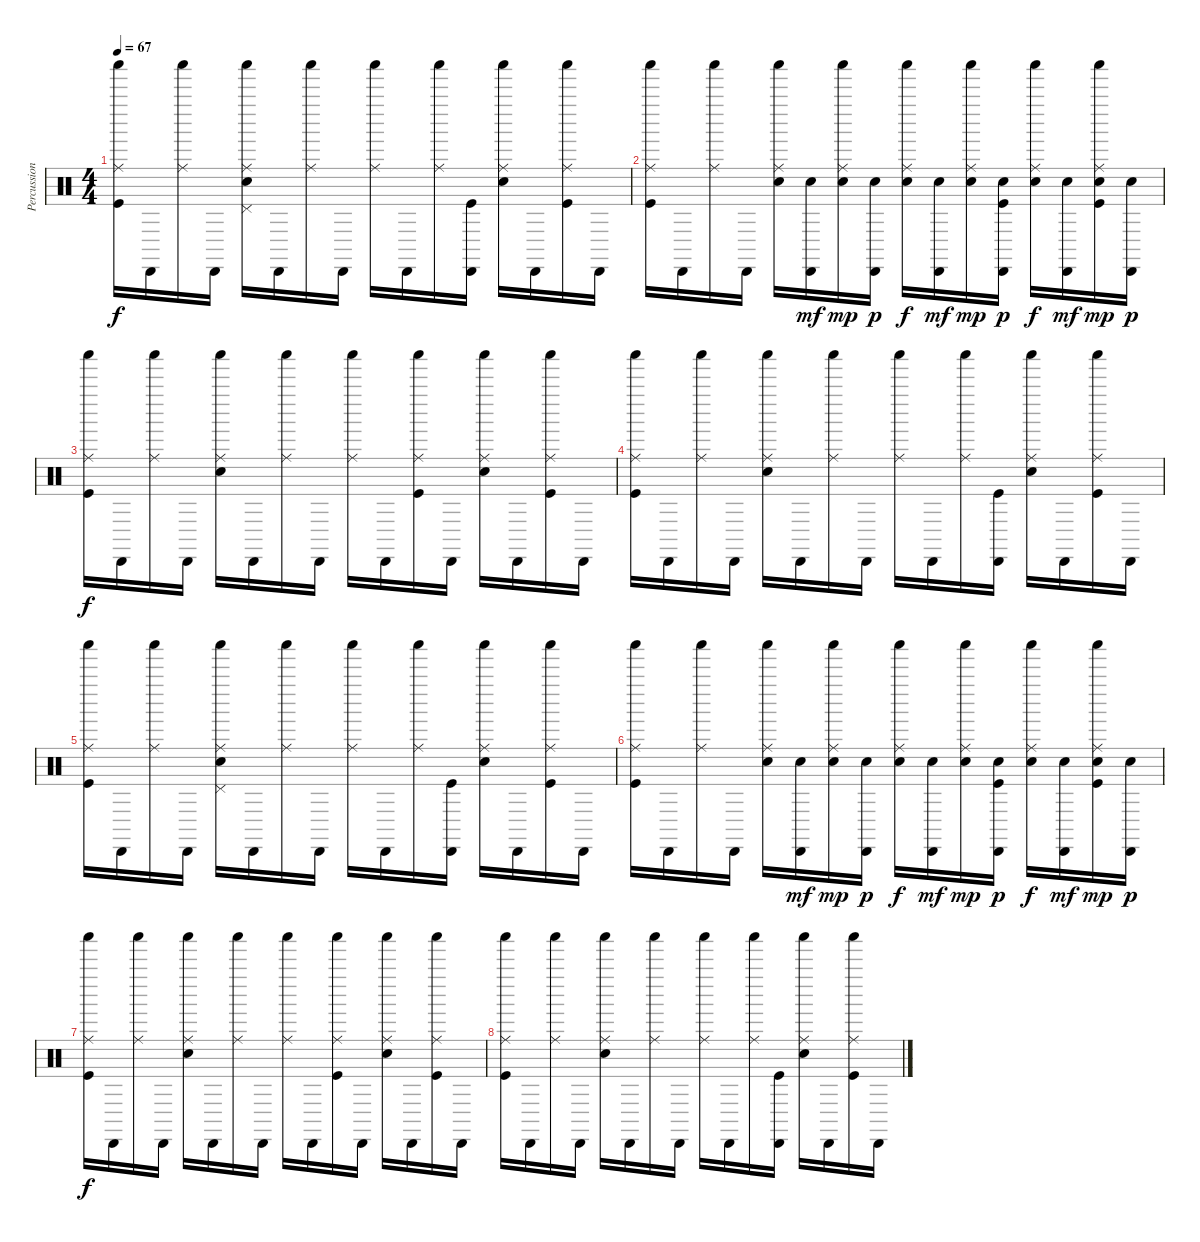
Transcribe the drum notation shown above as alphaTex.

\track ("Percussions" "Percussion") {instrument percussion}
\staff {score}
\articulation defaults
\ts (4 4)
\section ("" "")
\tempo 67
\clef neutral
\ks c
("Shaker (hit)" "Ride (middle)" "Kick (hit)").16{dy f} "Cabasa (hit)".16 ("Shaker (hit)" "Ride (middle)").16 "Cabasa (hit)".16 ("Shaker (hit)" "Ride (middle)" "Pedal Hi-Hat (hit)" "Snare (hit) 2").16 "Cabasa (hit)".16 ("Shaker (hit)" "Ride (middle)").16 "Cabasa (hit)".16 ("Shaker (hit)" "Ride (middle)").16 "Cabasa (hit)".16 ("Shaker (hit)" "Ride (middle)").16 ("Cabasa (hit)" "Kick (hit)").16 ("Shaker (hit)" "Ride (middle)" "Snare (hit) 2").16 "Cabasa (hit)".16 ("Shaker (hit)" "Ride (middle)" "Kick (hit)").16 "Cabasa (hit)".16 |
("Shaker (hit)" "Ride (middle)" "Kick (hit)").16 "Cabasa (hit)".16 ("Shaker (hit)" "Ride (middle)").16 "Cabasa (hit)".16 ("Shaker (hit)" "Ride (middle)" "Snare (hit) 2").16 ("Cabasa (hit)" "Snare (hit) 2").16{dy mf} ("Shaker (hit)" "Ride (middle)" "Snare (hit) 2").16{dy mp} ("Cabasa (hit)" "Snare (hit) 2").16{dy p} ("Shaker (hit)" "Ride (middle)" "Snare (hit) 2").16{dy f} ("Cabasa (hit)" "Snare (hit) 2").16{dy mf} ("Shaker (hit)" "Ride (middle)" "Snare (hit) 2").16{dy mp} ("Cabasa (hit)" "Snare (hit) 2" "Kick (hit)").16{dy p} ("Shaker (hit)" "Ride (middle)" "Snare (hit) 2").16{dy f} ("Cabasa (hit)" "Snare (hit) 2").16{dy mf} ("Shaker (hit)" "Ride (middle)" "Snare (hit) 2" "Kick (hit)").16{dy mp} ("Cabasa (hit)" "Snare (hit) 2").16{dy p} |
("Shaker (hit)" "Ride (middle)" "Kick (hit)").16{dy f} "Cabasa (hit)".16 ("Shaker (hit)" "Ride (middle)").16 "Cabasa (hit)".16 ("Shaker (hit)" "Ride (middle)" "Snare (hit) 2").16 "Cabasa (hit)".16 ("Shaker (hit)" "Ride (middle)").16 "Cabasa (hit)".16 ("Shaker (hit)" "Ride (middle)").16 "Cabasa (hit)".16 ("Shaker (hit)" "Ride (middle)" "Kick (hit)").16 "Cabasa (hit)".16 ("Shaker (hit)" "Ride (middle)" "Snare (hit) 2").16 "Cabasa (hit)".16 ("Shaker (hit)" "Ride (middle)" "Kick (hit)").16 "Cabasa (hit)".16 |
("Shaker (hit)" "Ride (middle)" "Kick (hit)").16 "Cabasa (hit)".16 ("Shaker (hit)" "Ride (middle)").16 "Cabasa (hit)".16 ("Shaker (hit)" "Ride (middle)" "Snare (hit) 2").16 "Cabasa (hit)".16 ("Shaker (hit)" "Ride (middle)").16 "Cabasa (hit)".16 ("Shaker (hit)" "Ride (middle)").16 "Cabasa (hit)".16 ("Shaker (hit)" "Ride (middle)").16 ("Cabasa (hit)" "Kick (hit)").16 ("Shaker (hit)" "Ride (middle)" "Snare (hit) 2").16 "Cabasa (hit)".16 ("Shaker (hit)" "Ride (middle)" "Kick (hit)").16 "Cabasa (hit)".16 |
("Shaker (hit)" "Ride (middle)" "Kick (hit)").16 "Cabasa (hit)".16 ("Shaker (hit)" "Ride (middle)").16 "Cabasa (hit)".16 ("Shaker (hit)" "Ride (middle)" "Pedal Hi-Hat (hit)" "Snare (hit) 2").16 "Cabasa (hit)".16 ("Shaker (hit)" "Ride (middle)").16 "Cabasa (hit)".16 ("Shaker (hit)" "Ride (middle)").16 "Cabasa (hit)".16 ("Shaker (hit)" "Ride (middle)").16 ("Cabasa (hit)" "Kick (hit)").16 ("Shaker (hit)" "Ride (middle)" "Snare (hit) 2").16 "Cabasa (hit)".16 ("Shaker (hit)" "Ride (middle)" "Kick (hit)").16 "Cabasa (hit)".16 |
("Shaker (hit)" "Ride (middle)" "Kick (hit)").16 "Cabasa (hit)".16 ("Shaker (hit)" "Ride (middle)").16 "Cabasa (hit)".16 ("Shaker (hit)" "Ride (middle)" "Snare (hit) 2").16 ("Cabasa (hit)" "Snare (hit) 2").16{dy mf} ("Shaker (hit)" "Ride (middle)" "Snare (hit) 2").16{dy mp} ("Cabasa (hit)" "Snare (hit) 2").16{dy p} ("Shaker (hit)" "Ride (middle)" "Snare (hit) 2").16{dy f} ("Cabasa (hit)" "Snare (hit) 2").16{dy mf} ("Shaker (hit)" "Ride (middle)" "Snare (hit) 2").16{dy mp} ("Cabasa (hit)" "Snare (hit) 2" "Kick (hit)").16{dy p} ("Shaker (hit)" "Ride (middle)" "Snare (hit) 2").16{dy f} ("Cabasa (hit)" "Snare (hit) 2").16{dy mf} ("Shaker (hit)" "Ride (middle)" "Snare (hit) 2" "Kick (hit)").16{dy mp} ("Cabasa (hit)" "Snare (hit) 2").16{dy p} |
("Shaker (hit)" "Ride (middle)" "Kick (hit)").16{dy f} "Cabasa (hit)".16 ("Shaker (hit)" "Ride (middle)").16 "Cabasa (hit)".16 ("Shaker (hit)" "Ride (middle)" "Snare (hit) 2").16 "Cabasa (hit)".16 ("Shaker (hit)" "Ride (middle)").16 "Cabasa (hit)".16 ("Shaker (hit)" "Ride (middle)").16 "Cabasa (hit)".16 ("Shaker (hit)" "Ride (middle)" "Kick (hit)").16 "Cabasa (hit)".16 ("Shaker (hit)" "Ride (middle)" "Snare (hit) 2").16 "Cabasa (hit)".16 ("Shaker (hit)" "Ride (middle)" "Kick (hit)").16 "Cabasa (hit)".16 |
\section ("" "")
("Shaker (hit)" "Ride (middle)" "Kick (hit)").16 "Cabasa (hit)".16 ("Shaker (hit)" "Ride (middle)").16 "Cabasa (hit)".16 ("Shaker (hit)" "Ride (middle)" "Snare (hit) 2").16 "Cabasa (hit)".16 ("Shaker (hit)" "Ride (middle)").16 "Cabasa (hit)".16 ("Shaker (hit)" "Ride (middle)").16 "Cabasa (hit)".16 ("Shaker (hit)" "Ride (middle)").16 ("Cabasa (hit)" "Kick (hit)").16 ("Shaker (hit)" "Ride (middle)" "Snare (hit) 2").16 "Cabasa (hit)".16 ("Shaker (hit)" "Ride (middle)" "Kick (hit)").16 "Cabasa (hit)".16
